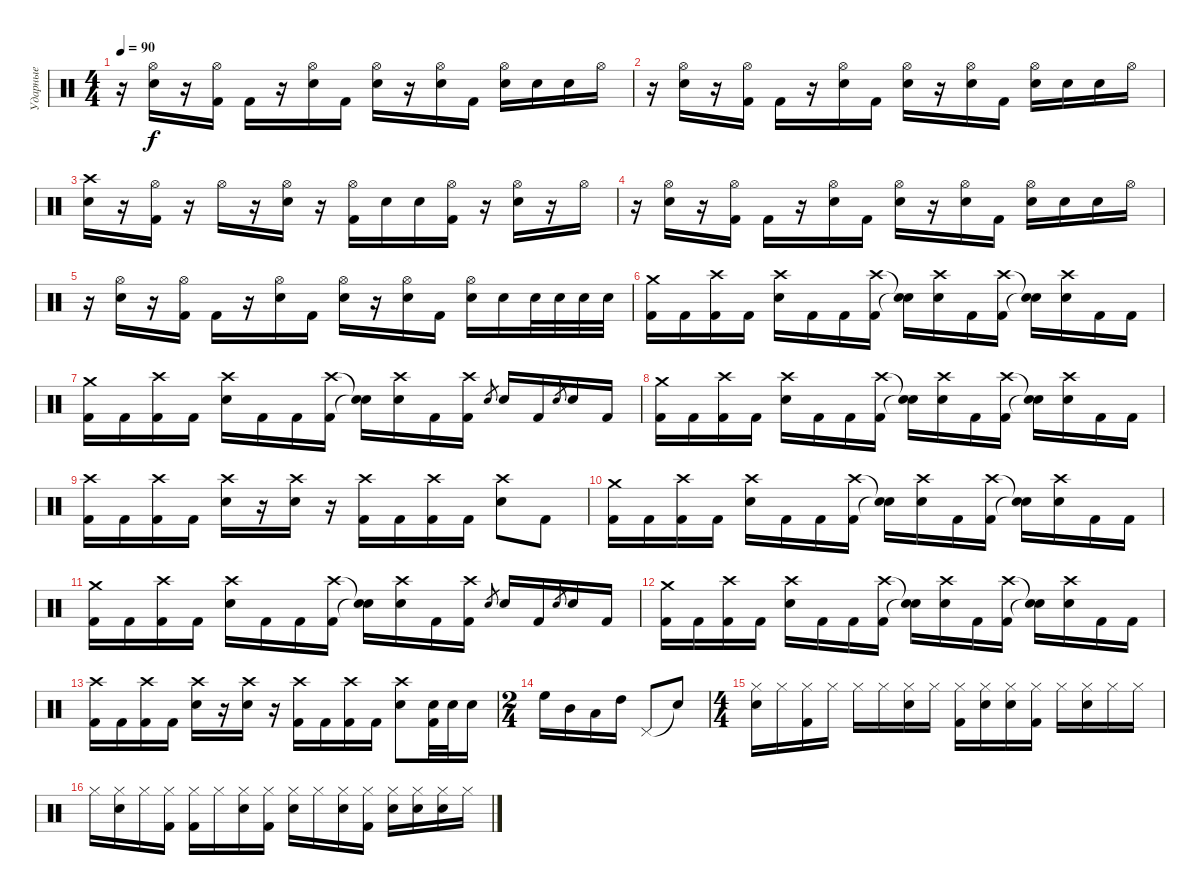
\track ("Ударные" "Ударные") {instrument percussion}
\staff {score}
\articulation defaults
\ts (4 4)
\tempo 90
\clef neutral
\ks c
r.16{dy f} ("Hi-Hat (open)" "Electric Snare (hit)").16 r.16 ("Hi-Hat (open)" "Kick (hit) 2").16 "Kick (hit) 2".16 r.16 ("Hi-Hat (open)" "Electric Snare (hit)").16 "Kick (hit) 2".16 ("Hi-Hat (open)" "Electric Snare (hit)").16 r.16 ("Hi-Hat (open)" "Electric Snare (hit)").16 "Kick (hit) 2".16 ("Hi-Hat (open)" "Electric Snare (hit)").16 "Electric Snare (hit)".16 "Electric Snare (hit)".16 "Hi-Hat (open)".16 |
r.16 ("Hi-Hat (open)" "Electric Snare (hit)").16 r.16 ("Hi-Hat (open)" "Kick (hit) 2").16 "Kick (hit) 2".16 r.16 ("Hi-Hat (open)" "Electric Snare (hit)").16 "Kick (hit) 2".16 ("Hi-Hat (open)" "Electric Snare (hit)").16 r.16 ("Hi-Hat (open)" "Electric Snare (hit)").16 "Kick (hit) 2".16 ("Hi-Hat (open)" "Electric Snare (hit)").16 "Electric Snare (hit)".16 "Electric Snare (hit)".16 "Hi-Hat (open)".16 |
("Crash high (hit)" "Electric Snare (hit)").16 r.16 ("Hi-Hat (open)" "Kick (hit) 2").16 r.16 "Hi-Hat (open)".16 r.16 ("Hi-Hat (open)" "Electric Snare (hit)").16 r.16 ("Hi-Hat (open)" "Kick (hit) 2").16 "Electric Snare (hit)".16 "Electric Snare (hit)".16 ("Hi-Hat (open)" "Kick (hit) 2").16 r.16 ("Hi-Hat (open)" "Electric Snare (hit)").16 r.16 "Hi-Hat (open)".16 |
r.16 ("Hi-Hat (open)" "Electric Snare (hit)").16 r.16 ("Hi-Hat (open)" "Kick (hit) 2").16 "Kick (hit) 2".16 r.16 ("Hi-Hat (open)" "Electric Snare (hit)").16 "Kick (hit) 2".16 ("Hi-Hat (open)" "Electric Snare (hit)").16 r.16 ("Hi-Hat (open)" "Electric Snare (hit)").16 "Kick (hit) 2".16 ("Hi-Hat (open)" "Electric Snare (hit)").16 "Electric Snare (hit)".16 "Electric Snare (hit)".16 "Hi-Hat (open)".16 |
r.16 ("Hi-Hat (open)" "Electric Snare (hit)").16 r.16 ("Hi-Hat (open)" "Kick (hit) 2").16 "Kick (hit) 2".16 r.16 ("Hi-Hat (open)" "Electric Snare (hit)").16 "Kick (hit) 2".16 ("Hi-Hat (open)" "Electric Snare (hit)").16 r.16 ("Hi-Hat (open)" "Electric Snare (hit)").16 "Kick (hit) 2".16 ("Hi-Hat (open)" "Electric Snare (hit)").16 "Electric Snare (hit)".16 "Electric Snare (hit)".32 "Electric Snare (hit)".32 "Electric Snare (hit)".32 "Electric Snare (hit)".32 |
("Crash medium (hit)" "Kick (hit) 2").16 "Kick (hit) 2".16 ("Crash high (hit)" "Kick (hit) 2").16 "Kick (hit) 2".16 ("Crash high (hit)" "Electric Snare (hit)").16 "Kick (hit) 2".16 "Kick (hit) 2".16 ("Crash high (hit)" "Kick (hit) 2").16 ("Snare (hit)"{t} "Snare (hit)"{t}).16 ("Crash high (hit)" "Electric Snare (hit)").16 "Kick (hit) 2".16 ("Crash high (hit)" "Kick (hit) 2").16 ("Snare (hit)"{t} "Snare (hit)"{t}).16 ("Crash high (hit)" "Electric Snare (hit)").16 "Kick (hit) 2".16 "Kick (hit) 2".16 |
("Crash medium (hit)" "Kick (hit) 2").16 "Kick (hit) 2".16 ("Crash high (hit)" "Kick (hit) 2").16 "Kick (hit) 2".16 ("Crash high (hit)" "Electric Snare (hit)").16 "Kick (hit) 2".16 "Kick (hit) 2".16 ("Crash high (hit)" "Kick (hit) 2").16 ("Snare (hit)"{t} "Snare (hit)"{t}).16 ("Crash high (hit)" "Electric Snare (hit)").16 "Kick (hit) 2".16 ("Crash high (hit)" "Kick (hit) 2").16 "Electric Snare (hit)".8{gr} "Electric Snare (hit)".16 "Kick (hit) 2".16 "Electric Snare (hit)".8{gr} "Electric Snare (hit)".16 "Kick (hit) 2".16 |
("Crash medium (hit)" "Kick (hit) 2").16 "Kick (hit) 2".16 ("Crash high (hit)" "Kick (hit) 2").16 "Kick (hit) 2".16 ("Crash high (hit)" "Electric Snare (hit)").16 "Kick (hit) 2".16 "Kick (hit) 2".16 ("Crash high (hit)" "Kick (hit) 2").16 ("Snare (hit)"{t} "Snare (hit)"{t}).16 ("Crash high (hit)" "Electric Snare (hit)").16 "Kick (hit) 2".16 ("Crash high (hit)" "Kick (hit) 2").16 ("Snare (hit)"{t} "Snare (hit)"{t}).16 ("Crash high (hit)" "Electric Snare (hit)").16 "Kick (hit) 2".16 "Kick (hit) 2".16 |
("Crash high (hit)" "Kick (hit) 2").16 "Kick (hit) 2".16 ("Crash high (hit)" "Kick (hit) 2").16 "Kick (hit) 2".16 ("Crash high (hit)" "Electric Snare (hit)").16 r.16 ("Crash high (hit)" "Electric Snare (hit)").16 r.16 ("Crash high (hit)" "Kick (hit) 2").16 "Kick (hit) 2".16 ("Crash high (hit)" "Kick (hit) 2").16 "Kick (hit) 2".16 ("Crash high (hit)" "Electric Snare (hit)").8 "Kick (hit) 2".8 |
("Crash medium (hit)" "Kick (hit) 2").16 "Kick (hit) 2".16 ("Crash high (hit)" "Kick (hit) 2").16 "Kick (hit) 2".16 ("Crash high (hit)" "Electric Snare (hit)").16 "Kick (hit) 2".16 "Kick (hit) 2".16 ("Crash high (hit)" "Kick (hit) 2").16 ("Snare (hit)"{t} "Snare (hit)"{t}).16 ("Crash high (hit)" "Electric Snare (hit)").16 "Kick (hit) 2".16 ("Crash high (hit)" "Kick (hit) 2").16 ("Snare (hit)"{t} "Snare (hit)"{t}).16 ("Crash high (hit)" "Electric Snare (hit)").16 "Kick (hit) 2".16 "Kick (hit) 2".16 |
("Crash medium (hit)" "Kick (hit) 2").16 "Kick (hit) 2".16 ("Crash high (hit)" "Kick (hit) 2").16 "Kick (hit) 2".16 ("Crash high (hit)" "Electric Snare (hit)").16 "Kick (hit) 2".16 "Kick (hit) 2".16 ("Crash high (hit)" "Kick (hit) 2").16 ("Snare (hit)"{t} "Snare (hit)"{t}).16 ("Crash high (hit)" "Electric Snare (hit)").16 "Kick (hit) 2".16 ("Crash high (hit)" "Kick (hit) 2").16 "Electric Snare (hit)".8{gr} "Electric Snare (hit)".16 "Kick (hit) 2".16 "Electric Snare (hit)".8{gr} "Electric Snare (hit)".16 "Kick (hit) 2".16 |
("Crash medium (hit)" "Kick (hit) 2").16 "Kick (hit) 2".16 ("Crash high (hit)" "Kick (hit) 2").16 "Kick (hit) 2".16 ("Crash high (hit)" "Electric Snare (hit)").16 "Kick (hit) 2".16 "Kick (hit) 2".16 ("Crash high (hit)" "Kick (hit) 2").16 ("Snare (hit)"{t} "Snare (hit)"{t}).16 ("Crash high (hit)" "Electric Snare (hit)").16 "Kick (hit) 2".16 ("Crash high (hit)" "Kick (hit) 2").16 ("Snare (hit)"{t} "Snare (hit)"{t}).16 ("Crash high (hit)" "Electric Snare (hit)").16 "Kick (hit) 2".16 "Kick (hit) 2".16 |
("Crash high (hit)" "Kick (hit) 2").16 "Kick (hit) 2".16 ("Crash high (hit)" "Kick (hit) 2").16 "Kick (hit) 2".16 ("Crash high (hit)" "Electric Snare (hit)").16 r.16 ("Crash high (hit)" "Electric Snare (hit)").16 r.16 ("Crash high (hit)" "Kick (hit) 2").16 "Kick (hit) 2".16 ("Crash high (hit)" "Kick (hit) 2").16 "Kick (hit) 2".16 ("Crash high (hit)" "Electric Snare (hit)").8 ("Electric Snare (hit)" "Kick (hit) 2").32 "Electric Snare (hit)".32 "Electric Snare (hit)".16 |
\ts (2 4)
"High Floor Tom (hit)".16 "Mid Tom (hit)".16 "Low Tom (hit)".16 "High Tom (hit)".16 "Pedal Hi-Hat (hit)".8 "Snare (hit)"{t}.8 |
\ts (4 4)
("Hi-Hat (closed)" "Electric Snare (hit)").16 "Hi-Hat (closed)".16 ("Hi-Hat (closed)" "Kick (hit) 2").16 "Hi-Hat (closed)".16 "Hi-Hat (closed)".16 "Hi-Hat (closed)".16 ("Hi-Hat (closed)" "Electric Snare (hit)").16 "Hi-Hat (closed)".16 ("Hi-Hat (closed)" "Kick (hit) 2").16 ("Hi-Hat (closed)" "Electric Snare (hit)").16 ("Hi-Hat (closed)" "Electric Snare (hit)").16 ("Hi-Hat (closed)" "Kick (hit) 2").16 "Hi-Hat (closed)".16 ("Hi-Hat (closed)" "Electric Snare (hit)").16 "Hi-Hat (closed)".16 "Hi-Hat (closed)".16 |
"Hi-Hat (closed)".16 ("Hi-Hat (closed)" "Electric Snare (hit)").16 "Hi-Hat (closed)".16 ("Hi-Hat (closed)" "Kick (hit) 2").16 ("Hi-Hat (closed)" "Kick (hit) 2").16 "Hi-Hat (closed)".16 ("Hi-Hat (closed)" "Electric Snare (hit)").16 ("Hi-Hat (closed)" "Kick (hit) 2").16 ("Hi-Hat (closed)" "Electric Snare (hit)").16 "Hi-Hat (closed)".16 ("Hi-Hat (closed)" "Electric Snare (hit)").16 ("Hi-Hat (closed)" "Kick (hit) 2").16 ("Hi-Hat (closed)" "Electric Snare (hit)").16 ("Hi-Hat (closed)" "Electric Snare (hit)").16 ("Hi-Hat (closed)" "Electric Snare (hit)").16 "Hi-Hat (closed)".16
